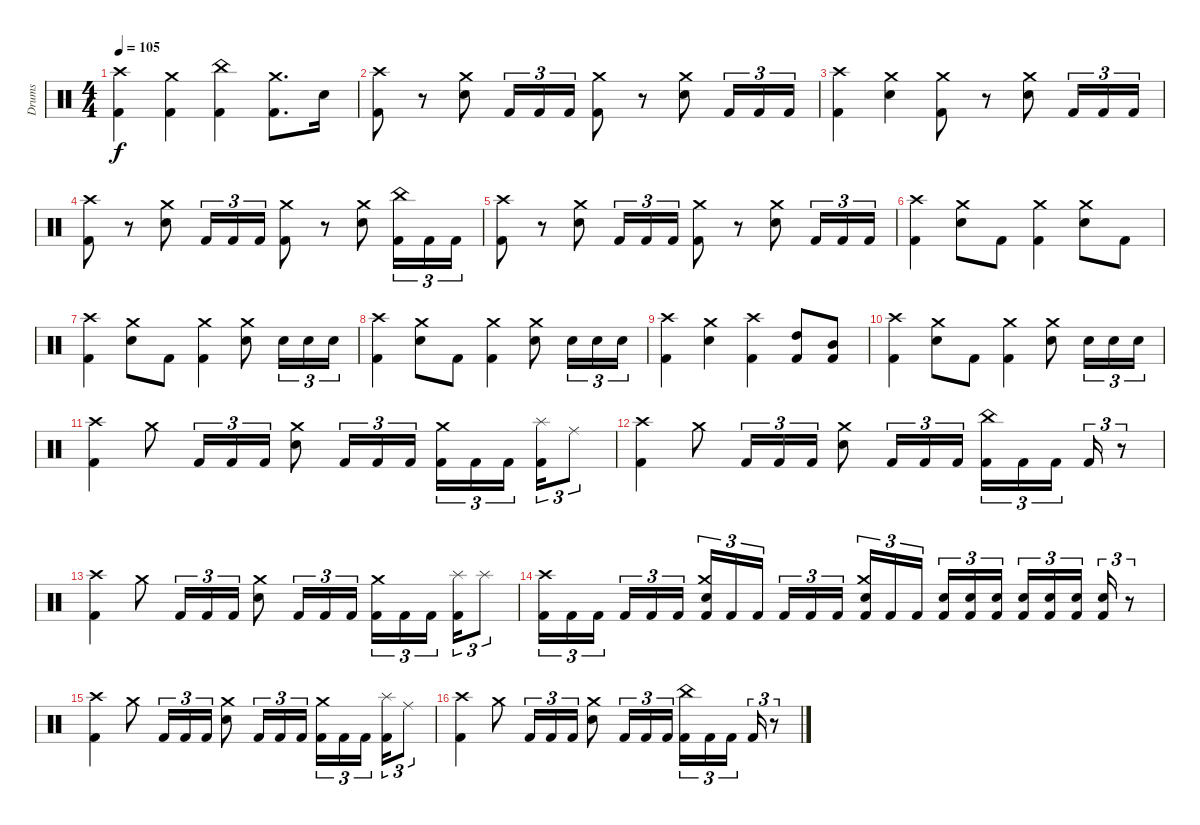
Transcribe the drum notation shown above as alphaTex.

\track ("Drums" "Drums") {instrument percussion}
\staff {score}
\articulation defaults
\ts (4 4)
\tempo 105
\clef neutral
\ks c
("Crash high (hit)" "Kick (hit) 2").4{dy f} ("Crash medium (hit)" "Kick (hit) 2").4 ("China (hit)" "Kick (hit) 2").4 ("Crash medium (hit)" "Kick (hit) 2").8{d} "Electric Snare (hit)".16 |
("Crash high (hit)" "Kick (hit) 2").8 r.8 ("Crash medium (hit)" "Electric Snare (hit)").8 "Kick (hit) 2".16{tu (3 2)} "Kick (hit) 2".16{tu (3 2)} "Kick (hit) 2".16{tu (3 2)} ("Crash medium (hit)" "Kick (hit) 2").8 r.8 ("Crash medium (hit)" "Electric Snare (hit)").8 "Kick (hit) 2".16{tu (3 2)} "Kick (hit) 2".16{tu (3 2)} "Kick (hit) 2".16{tu (3 2)} |
("Crash high (hit)" "Kick (hit) 2").4 ("Crash medium (hit)" "Electric Snare (hit)").4 ("Crash medium (hit)" "Kick (hit) 2").8 r.8 ("Crash medium (hit)" "Electric Snare (hit)").8 "Kick (hit) 2".16{tu (3 2)} "Kick (hit) 2".16{tu (3 2)} "Kick (hit) 2".16{tu (3 2)} |
("Crash high (hit)" "Kick (hit) 2").8 r.8 ("Crash medium (hit)" "Electric Snare (hit)").8 "Kick (hit) 2".16{tu (3 2)} "Kick (hit) 2".16{tu (3 2)} "Kick (hit) 2".16{tu (3 2)} ("Crash medium (hit)" "Kick (hit) 2").8 r.8 ("Crash medium (hit)" "Electric Snare (hit)").8 ("China (hit)" "Kick (hit) 2").16{tu (3 2)} "Kick (hit) 2".16{tu (3 2)} "Kick (hit) 2".16{tu (3 2)} |
("Crash high (hit)" "Kick (hit) 2").8 r.8 ("Crash medium (hit)" "Electric Snare (hit)").8 "Kick (hit) 2".16{tu (3 2)} "Kick (hit) 2".16{tu (3 2)} "Kick (hit) 2".16{tu (3 2)} ("Crash medium (hit)" "Kick (hit) 2").8 r.8 ("Crash medium (hit)" "Electric Snare (hit)").8 "Kick (hit) 2".16{tu (3 2)} "Kick (hit) 2".16{tu (3 2)} "Kick (hit) 2".16{tu (3 2)} |
("Crash high (hit)" "Kick (hit) 2").4 ("Crash medium (hit)" "Electric Snare (hit)").8 "Kick (hit) 2".8 ("Crash medium (hit)" "Kick (hit) 2").4 ("Crash medium (hit)" "Electric Snare (hit)").8 "Kick (hit) 2".8 |
("Crash high (hit)" "Kick (hit) 2").4 ("Crash medium (hit)" "Electric Snare (hit)").8 "Kick (hit) 2".8 ("Crash medium (hit)" "Kick (hit) 2").4 ("Crash medium (hit)" "Electric Snare (hit)").8 "Electric Snare (hit)".16{tu (3 2)} "Electric Snare (hit)".16{tu (3 2)} "Electric Snare (hit)".16{tu (3 2)} |
("Crash high (hit)" "Kick (hit) 2").4 ("Crash medium (hit)" "Electric Snare (hit)").8 "Kick (hit) 2".8 ("Crash medium (hit)" "Kick (hit) 2").4 ("Crash medium (hit)" "Electric Snare (hit)").8 "Electric Snare (hit)".16{tu (3 2)} "Electric Snare (hit)".16{tu (3 2)} "Electric Snare (hit)".16{tu (3 2)} |
("Crash high (hit)" "Kick (hit) 2").4 ("Crash medium (hit)" "Electric Snare (hit)").4 ("Crash high (hit)" "Kick (hit) 2").4 ("High Tom (hit)" "Kick (hit) 2").8 ("Mid Tom (hit)" "Kick (hit) 2").8 |
("Crash high (hit)" "Kick (hit) 2").4 ("Crash medium (hit)" "Electric Snare (hit)").8 "Kick (hit) 2".8 ("Crash medium (hit)" "Kick (hit) 2").4 ("Crash medium (hit)" "Electric Snare (hit)").8 "Electric Snare (hit)".16{tu (3 2)} "Electric Snare (hit)".16{tu (3 2)} "Electric Snare (hit)".16{tu (3 2)} |
("Crash high (hit)" "Kick (hit) 2").4 "Crash medium (hit)".8 "Kick (hit) 2".16{tu (3 2)} "Kick (hit) 2".16{tu (3 2)} "Kick (hit) 2".16{tu (3 2)} ("Crash medium (hit)" "Electric Snare (hit)").8 "Kick (hit) 2".16{tu (3 2)} "Kick (hit) 2".16{tu (3 2)} "Kick (hit) 2".16{tu (3 2)} ("Crash medium (hit)" "Kick (hit) 2").16{tu (3 2)} "Kick (hit) 2".16{tu (3 2)} "Kick (hit) 2".16{tu (3 2) beam splitsecondary} ("Splash (hit)" "Kick (hit) 2").16{tu (3 2)} "Ride (middle)".8{tu (3 2)} |
("Crash high (hit)" "Kick (hit) 2").4 "Crash medium (hit)".8 "Kick (hit) 2".16{tu (3 2)} "Kick (hit) 2".16{tu (3 2)} "Kick (hit) 2".16{tu (3 2)} ("Crash medium (hit)" "Electric Snare (hit)").8 "Kick (hit) 2".16{tu (3 2)} "Kick (hit) 2".16{tu (3 2)} "Kick (hit) 2".16{tu (3 2)} ("China (hit)" "Kick (hit) 2").16{tu (3 2)} "Kick (hit) 2".16{tu (3 2)} "Kick (hit) 2".16{tu (3 2) beam splitsecondary} "Kick (hit) 2".16{tu (3 2)} r.8{tu (3 2)} |
("Crash high (hit)" "Kick (hit) 2").4 "Crash medium (hit)".8 "Kick (hit) 2".16{tu (3 2)} "Kick (hit) 2".16{tu (3 2)} "Kick (hit) 2".16{tu (3 2)} ("Crash medium (hit)" "Electric Snare (hit)").8 "Kick (hit) 2".16{tu (3 2)} "Kick (hit) 2".16{tu (3 2)} "Kick (hit) 2".16{tu (3 2)} ("Crash medium (hit)" "Kick (hit) 2").16{tu (3 2)} "Kick (hit) 2".16{tu (3 2)} "Kick (hit) 2".16{tu (3 2) beam splitsecondary} ("Splash (hit)" "Kick (hit) 2").16{tu (3 2)} "Splash (hit)".8{tu (3 2)} |
("Crash high (hit)" "Kick (hit) 2").16{tu (3 2)} "Kick (hit) 2".16{tu (3 2)} "Kick (hit) 2".16{tu (3 2) beam splitsecondary} "Kick (hit) 2".16{tu (3 2)} "Kick (hit) 2".16{tu (3 2)} "Kick (hit) 2".16{tu (3 2)} ("Crash medium (hit)" "Electric Snare (hit)" "Kick (hit) 2").16{tu (3 2)} "Kick (hit) 2".16{tu (3 2)} "Kick (hit) 2".16{tu (3 2) beam splitsecondary} "Kick (hit) 2".16{tu (3 2)} "Kick (hit) 2".16{tu (3 2)} "Kick (hit) 2".16{tu (3 2)} ("Crash medium (hit)" "Electric Snare (hit)" "Kick (hit) 2").16{tu (3 2)} "Kick (hit) 2".16{tu (3 2)} "Kick (hit) 2".16{tu (3 2) beam splitsecondary} ("Electric Snare (hit)" "Kick (hit) 2").16{tu (3 2)} ("Electric Snare (hit)" "Kick (hit) 2").16{tu (3 2)} ("Electric Snare (hit)" "Kick (hit) 2").16{tu (3 2)} ("Electric Snare (hit)" "Kick (hit) 2").16{tu (3 2)} ("Electric Snare (hit)" "Kick (hit) 2").16{tu (3 2)} ("Electric Snare (hit)" "Kick (hit) 2").16{tu (3 2) beam splitsecondary} ("Electric Snare (hit)" "Kick (hit) 2").16{tu (3 2)} r.8{tu (3 2)} |
("Crash high (hit)" "Kick (hit) 2").4 "Crash medium (hit)".8 "Kick (hit) 2".16{tu (3 2)} "Kick (hit) 2".16{tu (3 2)} "Kick (hit) 2".16{tu (3 2)} ("Crash medium (hit)" "Electric Snare (hit)").8 "Kick (hit) 2".16{tu (3 2)} "Kick (hit) 2".16{tu (3 2)} "Kick (hit) 2".16{tu (3 2)} ("Crash medium (hit)" "Kick (hit) 2").16{tu (3 2)} "Kick (hit) 2".16{tu (3 2)} "Kick (hit) 2".16{tu (3 2) beam splitsecondary} ("Splash (hit)" "Kick (hit) 2").16{tu (3 2)} "Ride (middle)".8{tu (3 2)} |
("Crash high (hit)" "Kick (hit) 2").4 "Crash medium (hit)".8 "Kick (hit) 2".16{tu (3 2)} "Kick (hit) 2".16{tu (3 2)} "Kick (hit) 2".16{tu (3 2)} ("Crash medium (hit)" "Electric Snare (hit)").8 "Kick (hit) 2".16{tu (3 2)} "Kick (hit) 2".16{tu (3 2)} "Kick (hit) 2".16{tu (3 2)} ("China (hit)" "Kick (hit) 2").16{tu (3 2)} "Kick (hit) 2".16{tu (3 2)} "Kick (hit) 2".16{tu (3 2) beam splitsecondary} "Kick (hit) 2".16{tu (3 2)} r.8{tu (3 2)}
